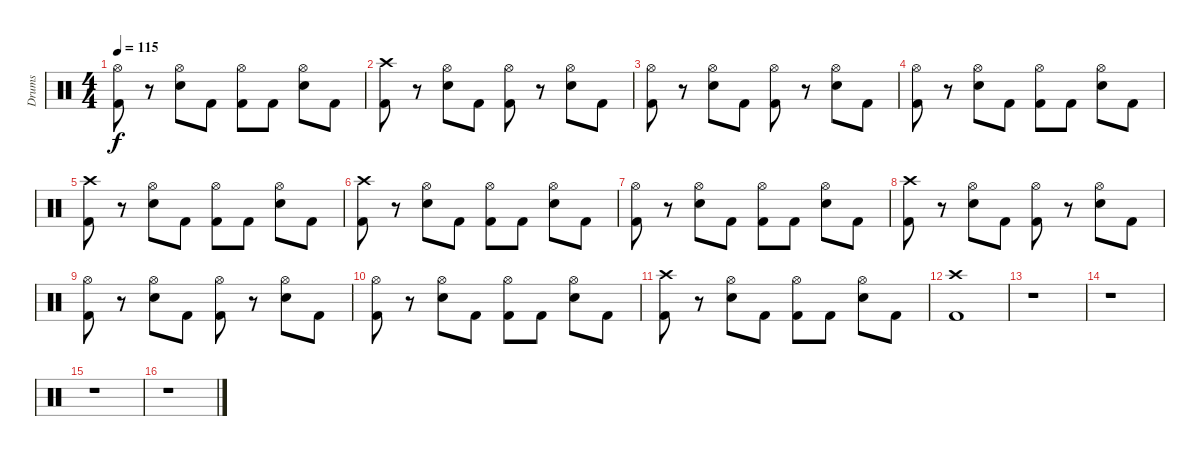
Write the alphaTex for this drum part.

\track ("Drums" "Drums") {instrument percussion}
\staff {score}
\articulation defaults
\ts (4 4)
\tempo 115
\clef neutral
\ks c
("Hi-Hat (open)" "Kick (hit) 2").8{dy f} r.8 ("Hi-Hat (open)" "Snare (hit) 2").8 "Kick (hit) 2".8 ("Hi-Hat (open)" "Kick (hit) 2").8 "Kick (hit) 2".8 ("Hi-Hat (open)" "Snare (hit) 2").8 "Kick (hit) 2".8 |
("Crash high (hit)" "Kick (hit) 2").8 r.8 ("Hi-Hat (open)" "Snare (hit) 2").8 "Kick (hit) 2".8 ("Hi-Hat (open)" "Kick (hit) 2").8 r.8 ("Hi-Hat (open)" "Snare (hit) 2").8 "Kick (hit) 2".8 |
("Hi-Hat (open)" "Kick (hit) 2").8 r.8 ("Hi-Hat (open)" "Snare (hit) 2").8 "Kick (hit) 2".8 ("Hi-Hat (open)" "Kick (hit) 2").8 r.8 ("Hi-Hat (open)" "Snare (hit) 2").8 "Kick (hit) 2".8 |
("Hi-Hat (open)" "Kick (hit) 2").8 r.8 ("Hi-Hat (open)" "Snare (hit) 2").8 "Kick (hit) 2".8 ("Hi-Hat (open)" "Kick (hit) 2").8 "Kick (hit) 2".8 ("Hi-Hat (open)" "Snare (hit) 2").8 "Kick (hit) 2".8 |
("Crash high (hit)" "Kick (hit) 2").8 r.8 ("Hi-Hat (open)" "Snare (hit) 2").8 "Kick (hit) 2".8 ("Hi-Hat (open)" "Kick (hit) 2").8 "Kick (hit) 2".8 ("Hi-Hat (open)" "Snare (hit) 2").8 "Kick (hit) 2".8 |
("Crash high (hit)" "Kick (hit) 2").8 r.8 ("Hi-Hat (open)" "Snare (hit) 2").8 "Kick (hit) 2".8 ("Hi-Hat (open)" "Kick (hit) 2").8 "Kick (hit) 2".8 ("Hi-Hat (open)" "Snare (hit) 2").8 "Kick (hit) 2".8 |
("Hi-Hat (open)" "Kick (hit) 2").8 r.8 ("Hi-Hat (open)" "Snare (hit) 2").8 "Kick (hit) 2".8 ("Hi-Hat (open)" "Kick (hit) 2").8 "Kick (hit) 2".8 ("Hi-Hat (open)" "Snare (hit) 2").8 "Kick (hit) 2".8 |
("Crash high (hit)" "Kick (hit) 2").8 r.8 ("Hi-Hat (open)" "Snare (hit) 2").8 "Kick (hit) 2".8 ("Hi-Hat (open)" "Kick (hit) 2").8 r.8 ("Hi-Hat (open)" "Snare (hit) 2").8 "Kick (hit) 2".8 |
("Hi-Hat (open)" "Kick (hit) 2").8 r.8 ("Hi-Hat (open)" "Snare (hit) 2").8 "Kick (hit) 2".8 ("Hi-Hat (open)" "Kick (hit) 2").8 r.8 ("Hi-Hat (open)" "Snare (hit) 2").8 "Kick (hit) 2".8 |
("Hi-Hat (open)" "Kick (hit) 2").8 r.8 ("Hi-Hat (open)" "Snare (hit) 2").8 "Kick (hit) 2".8 ("Hi-Hat (open)" "Kick (hit) 2").8 "Kick (hit) 2".8 ("Hi-Hat (open)" "Snare (hit) 2").8 "Kick (hit) 2".8 |
("Crash high (hit)" "Kick (hit) 2").8 r.8 ("Hi-Hat (open)" "Snare (hit) 2").8 "Kick (hit) 2".8 ("Hi-Hat (open)" "Kick (hit) 2").8 "Kick (hit) 2".8 ("Hi-Hat (open)" "Snare (hit) 2").8 "Kick (hit) 2".8 |
("Crash high (hit)" "Kick (hit) 2").1 |
r.1 |
r.1 |
r.1 |
r.1
